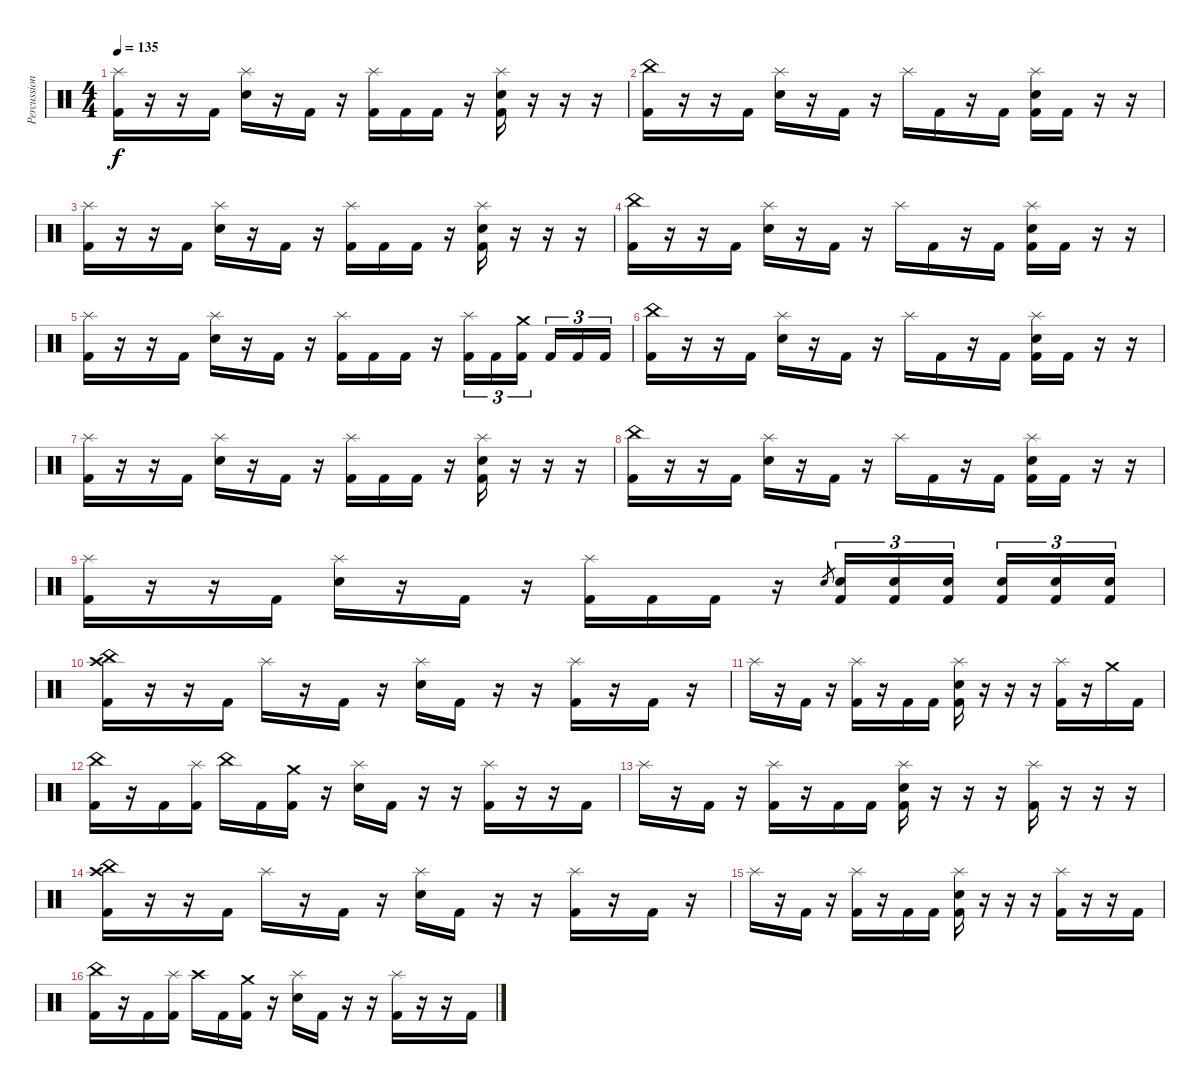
\track ("Percussion" "Percussion") {instrument percussion}
\staff {score}
\articulation defaults
\ts (4 4)
\tempo 135
\clef neutral
\ks c
("Splash (hit)" "Kick (hit) 2").16{dy f} r.16 r.16 "Kick (hit) 2".16 ("Splash (hit)" "Electric Snare (hit)").16 r.16 "Kick (hit) 2".16 r.16 ("Splash (hit)" "Kick (hit) 2").16 "Kick (hit) 2".16 "Kick (hit) 2".16 r.16 ("Splash (hit)" "Electric Snare (hit)" "Kick (hit) 2").16 r.16 r.16 r.16 |
("China (hit)" "Kick (hit) 2").16 r.16 r.16 "Kick (hit) 2".16 ("Splash (hit)" "Electric Snare (hit)").16 r.16 "Kick (hit) 2".16 r.16 "Splash (hit)".16 "Kick (hit) 2".16 r.16 "Kick (hit) 2".16 ("Splash (hit)" "Electric Snare (hit)" "Kick (hit) 2").16 "Kick (hit) 2".16 r.16 r.16 |
("Splash (hit)" "Kick (hit) 2").16 r.16 r.16 "Kick (hit) 2".16 ("Splash (hit)" "Electric Snare (hit)").16 r.16 "Kick (hit) 2".16 r.16 ("Splash (hit)" "Kick (hit) 2").16 "Kick (hit) 2".16 "Kick (hit) 2".16 r.16 ("Splash (hit)" "Electric Snare (hit)" "Kick (hit) 2").16 r.16 r.16 r.16 |
("China (hit)" "Kick (hit) 2").16 r.16 r.16 "Kick (hit) 2".16 ("Splash (hit)" "Electric Snare (hit)").16 r.16 "Kick (hit) 2".16 r.16 "Splash (hit)".16 "Kick (hit) 2".16 r.16 "Kick (hit) 2".16 ("Splash (hit)" "Electric Snare (hit)" "Kick (hit) 2").16 "Kick (hit) 2".16 r.16 r.16 |
("Splash (hit)" "Kick (hit) 2").16 r.16 r.16 "Kick (hit) 2".16 ("Splash (hit)" "Electric Snare (hit)").16 r.16 "Kick (hit) 2".16 r.16 ("Splash (hit)" "Kick (hit) 2").16 "Kick (hit) 2".16 "Kick (hit) 2".16 r.16 ("Splash (hit)" "Kick (hit) 2").16{tu (3 2)} "Kick (hit) 2".16{tu (3 2)} ("Crash medium (hit)" "Kick (hit) 2").16{tu (3 2) beam splitsecondary} "Kick (hit) 2".16{tu (3 2)} "Kick (hit) 2".16{tu (3 2)} "Kick (hit) 2".16{tu (3 2)} |
("China (hit)" "Kick (hit) 2").16 r.16 r.16 "Kick (hit) 2".16 ("Splash (hit)" "Electric Snare (hit)").16 r.16 "Kick (hit) 2".16 r.16 "Splash (hit)".16 "Kick (hit) 2".16 r.16 "Kick (hit) 2".16 ("Splash (hit)" "Electric Snare (hit)" "Kick (hit) 2").16 "Kick (hit) 2".16 r.16 r.16 |
("Splash (hit)" "Kick (hit) 2").16 r.16 r.16 "Kick (hit) 2".16 ("Splash (hit)" "Electric Snare (hit)").16 r.16 "Kick (hit) 2".16 r.16 ("Splash (hit)" "Kick (hit) 2").16 "Kick (hit) 2".16 "Kick (hit) 2".16 r.16 ("Splash (hit)" "Electric Snare (hit)" "Kick (hit) 2").16 r.16 r.16 r.16 |
("China (hit)" "Kick (hit) 2").16 r.16 r.16 "Kick (hit) 2".16 ("Splash (hit)" "Electric Snare (hit)").16 r.16 "Kick (hit) 2".16 r.16 "Splash (hit)".16 "Kick (hit) 2".16 r.16 "Kick (hit) 2".16 ("Splash (hit)" "Electric Snare (hit)" "Kick (hit) 2").16 "Kick (hit) 2".16 r.16 r.16 |
("Splash (hit)" "Kick (hit) 2").16 r.16 r.16 "Kick (hit) 2".16 ("Splash (hit)" "Electric Snare (hit)").16 r.16 "Kick (hit) 2".16 r.16 ("Splash (hit)" "Kick (hit) 2").16 "Kick (hit) 2".16 "Kick (hit) 2".16 r.16 "Electric Snare (hit)".8{gr} ("Electric Snare (hit)" "Kick (hit) 2").16{tu (3 2)} ("Electric Snare (hit)" "Kick (hit) 2").16{tu (3 2)} ("Electric Snare (hit)" "Kick (hit) 2").16{tu (3 2) beam splitsecondary} ("Electric Snare (hit)" "Kick (hit) 2").16{tu (3 2)} ("Electric Snare (hit)" "Kick (hit) 2").16{tu (3 2)} ("Electric Snare (hit)" "Kick (hit) 2").16{tu (3 2)} |
("China (hit)" "Crash high (hit)" "Kick (hit) 2").16 r.16 r.16 "Kick (hit) 2".16 "Splash (hit)".16 r.16 "Kick (hit) 2".16 r.16 ("Splash (hit)" "Electric Snare (hit)").16 "Kick (hit) 2".16 r.16 r.16 ("Splash (hit)" "Kick (hit) 2").16 r.16 "Kick (hit) 2".16 r.16 |
"Splash (hit)".16 r.16 "Kick (hit) 2".16 r.16 ("Splash (hit)" "Kick (hit) 2").16 r.16 "Kick (hit) 2".16 "Kick (hit) 2".16 ("Splash (hit)" "Electric Snare (hit)" "Kick (hit) 2").16 r.16 r.16 r.16 ("Splash (hit)" "Kick (hit) 2").16 r.16 "Crash medium (hit)".16 "Kick (hit) 2".16 |
("China (hit)" "Kick (hit) 2").16 r.16 "Kick (hit) 2".16 ("Splash (hit)" "Kick (hit) 2").16 "China (hit)".16 "Kick (hit) 2".16 ("Crash medium (hit)" "Kick (hit) 2").16 r.16 ("Splash (hit)" "Electric Snare (hit)").16 "Kick (hit) 2".16 r.16 r.16 ("Splash (hit)" "Kick (hit) 2").16 r.16 r.16 "Kick (hit) 2".16 |
"Splash (hit)".16 r.16 "Kick (hit) 2".16 r.16 ("Splash (hit)" "Kick (hit) 2").16 r.16 "Kick (hit) 2".16 "Kick (hit) 2".16 ("Splash (hit)" "Electric Snare (hit)" "Kick (hit) 2").16 r.16 r.16 r.16 ("Splash (hit)" "Kick (hit) 2").16 r.16 r.16 r.16 |
("China (hit)" "Crash high (hit)" "Kick (hit) 2").16 r.16 r.16 "Kick (hit) 2".16 "Splash (hit)".16 r.16 "Kick (hit) 2".16 r.16 ("Splash (hit)" "Electric Snare (hit)").16 "Kick (hit) 2".16 r.16 r.16 ("Splash (hit)" "Kick (hit) 2").16 r.16 "Kick (hit) 2".16 r.16 |
"Splash (hit)".16 r.16 "Kick (hit) 2".16 r.16 ("Splash (hit)" "Kick (hit) 2").16 r.16 "Kick (hit) 2".16 "Kick (hit) 2".16 ("Splash (hit)" "Electric Snare (hit)" "Kick (hit) 2").16 r.16 r.16 r.16 ("Splash (hit)" "Kick (hit) 2").16 r.16 r.16 "Kick (hit) 2".16 |
("China (hit)" "Kick (hit) 2").16 r.16 "Kick (hit) 2".16 ("Splash (hit)" "Kick (hit) 2").16 "Crash high (hit)".16 "Kick (hit) 2".16 ("Crash medium (hit)" "Kick (hit) 2").16 r.16 ("Splash (hit)" "Electric Snare (hit)").16 "Kick (hit) 2".16 r.16 r.16 ("Splash (hit)" "Kick (hit) 2").16 r.16 r.16 "Kick (hit) 2".16
